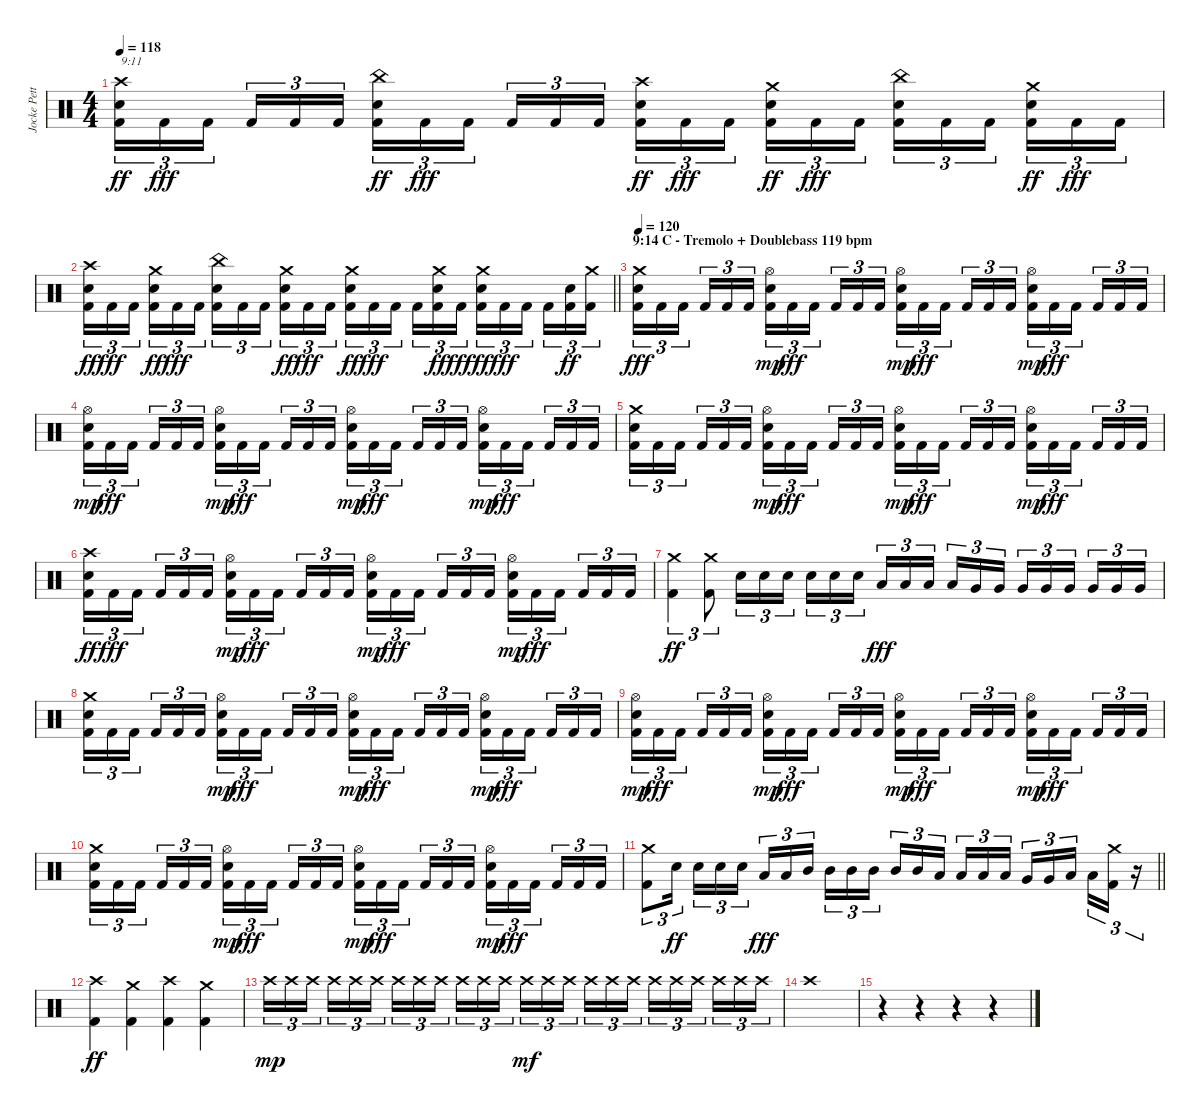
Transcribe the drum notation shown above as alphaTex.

\track ("Jocke Pettersson" "Jocke Pett") {instrument percussion}
\staff {score}
\articulation defaults
\ts (4 4)
\tempo 118
\clef neutral
\ks c
("Kick (hit) 2" "Electric Snare (hit)" "Crash high (hit)").16{tu (3 2) txt "9:11" dy ff} "Kick (hit) 2".16{tu (3 2) dy fff} "Kick (hit) 2".16{tu (3 2) beam splitsecondary} "Kick (hit) 2".16{tu (3 2)} "Kick (hit) 2".16{tu (3 2)} "Kick (hit) 2".16{tu (3 2)} ("Kick (hit) 2" "Electric Snare (hit)" "China (hit)").16{tu (3 2) dy ff} "Kick (hit) 2".16{tu (3 2) dy fff} "Kick (hit) 2".16{tu (3 2) beam splitsecondary} "Kick (hit) 2".16{tu (3 2)} "Kick (hit) 2".16{tu (3 2)} "Kick (hit) 2".16{tu (3 2)} ("Kick (hit) 2" "Electric Snare (hit)" "Crash high (hit)").16{tu (3 2) dy ff} "Kick (hit) 2".16{tu (3 2) dy fff} "Kick (hit) 2".16{tu (3 2) beam splitsecondary} ("Kick (hit) 2" "Electric Snare (hit)" "Crash medium (hit)").16{tu (3 2) dy ff} "Kick (hit) 2".16{tu (3 2) dy fff} "Kick (hit) 2".16{tu (3 2)} ("Kick (hit) 2" "Electric Snare (hit)" "China (hit)").16{tu (3 2)} "Kick (hit) 2".16{tu (3 2)} "Kick (hit) 2".16{tu (3 2) beam splitsecondary} ("Kick (hit) 2" "Electric Snare (hit)" "Crash medium (hit)").16{tu (3 2) dy ff} "Kick (hit) 2".16{tu (3 2) dy fff} "Kick (hit) 2".16{tu (3 2)} |
\barLineRight lightlight
("Kick (hit) 2" "Electric Snare (hit)" "Crash high (hit)").16{tu (3 2) dy ff} "Kick (hit) 2".16{tu (3 2) dy fff} "Kick (hit) 2".16{tu (3 2) beam splitsecondary} ("Kick (hit) 2" "Electric Snare (hit)" "Crash medium (hit)").16{tu (3 2) dy ff} "Kick (hit) 2".16{tu (3 2) dy fff} "Kick (hit) 2".16{tu (3 2)} ("Kick (hit) 2" "Electric Snare (hit)" "China (hit)").16{tu (3 2)} "Kick (hit) 2".16{tu (3 2)} "Kick (hit) 2".16{tu (3 2) beam splitsecondary} ("Kick (hit) 2" "Electric Snare (hit)" "Crash medium (hit)").16{tu (3 2) dy ff} "Kick (hit) 2".16{tu (3 2) dy fff} "Kick (hit) 2".16{tu (3 2)} ("Kick (hit) 2" "Electric Snare (hit)" "Crash medium (hit)").16{tu (3 2) dy ff} "Kick (hit) 2".16{tu (3 2) dy fff} "Kick (hit) 2".16{tu (3 2) beam splitsecondary} "Kick (hit) 2".16{tu (3 2)} ("Kick (hit) 2" "Electric Snare (hit)" "Crash medium (hit)").16{tu (3 2) dy ff} "Kick (hit) 2".16{tu (3 2) dy fff} ("Kick (hit) 2" "Electric Snare (hit)" "Crash medium (hit)").16{tu (3 2) dy ff} "Kick (hit) 2".16{tu (3 2) dy fff} "Kick (hit) 2".16{tu (3 2) beam splitsecondary} "Kick (hit) 2".16{tu (3 2)} ("Kick (hit) 2" "Electric Snare (hit)").16{tu (3 2) dy ff} ("Kick (hit) 2" "Crash medium (hit)").16{tu (3 2)} |
\section ("" "9:14 C - Tremolo + Doublebass 119 bpm")
\tempo 120
("Kick (hit) 2" "Electric Snare (hit)" "Crash medium (hit)").16{tu (3 2) dy fff} "Kick (hit) 2".16{tu (3 2)} "Kick (hit) 2".16{tu (3 2) beam splitsecondary} "Kick (hit) 2".16{tu (3 2)} "Kick (hit) 2".16{tu (3 2)} "Kick (hit) 2".16{tu (3 2)} ("Kick (hit) 2" "Electric Snare (hit)" "Hi-Hat (open)").16{tu (3 2) dy mp} "Kick (hit) 2".16{tu (3 2) dy fff} "Kick (hit) 2".16{tu (3 2) beam splitsecondary} "Kick (hit) 2".16{tu (3 2)} "Kick (hit) 2".16{tu (3 2)} "Kick (hit) 2".16{tu (3 2)} ("Kick (hit) 2" "Electric Snare (hit)" "Hi-Hat (open)").16{tu (3 2) dy mp} "Kick (hit) 2".16{tu (3 2) dy fff} "Kick (hit) 2".16{tu (3 2) beam splitsecondary} "Kick (hit) 2".16{tu (3 2)} "Kick (hit) 2".16{tu (3 2)} "Kick (hit) 2".16{tu (3 2)} ("Kick (hit) 2" "Electric Snare (hit)" "Hi-Hat (open)").16{tu (3 2) dy mp} "Kick (hit) 2".16{tu (3 2) dy fff} "Kick (hit) 2".16{tu (3 2) beam splitsecondary} "Kick (hit) 2".16{tu (3 2)} "Kick (hit) 2".16{tu (3 2)} "Kick (hit) 2".16{tu (3 2)} |
("Kick (hit) 2" "Electric Snare (hit)" "Hi-Hat (open)").16{tu (3 2) dy mp} "Kick (hit) 2".16{tu (3 2) dy fff} "Kick (hit) 2".16{tu (3 2) beam splitsecondary} "Kick (hit) 2".16{tu (3 2)} "Kick (hit) 2".16{tu (3 2)} "Kick (hit) 2".16{tu (3 2)} ("Kick (hit) 2" "Electric Snare (hit)" "Hi-Hat (open)").16{tu (3 2) dy mp} "Kick (hit) 2".16{tu (3 2) dy fff} "Kick (hit) 2".16{tu (3 2) beam splitsecondary} "Kick (hit) 2".16{tu (3 2)} "Kick (hit) 2".16{tu (3 2)} "Kick (hit) 2".16{tu (3 2)} ("Kick (hit) 2" "Electric Snare (hit)" "Hi-Hat (open)").16{tu (3 2) dy mp} "Kick (hit) 2".16{tu (3 2) dy fff} "Kick (hit) 2".16{tu (3 2) beam splitsecondary} "Kick (hit) 2".16{tu (3 2)} "Kick (hit) 2".16{tu (3 2)} "Kick (hit) 2".16{tu (3 2)} ("Kick (hit) 2" "Electric Snare (hit)" "Hi-Hat (open)").16{tu (3 2) dy mp} "Kick (hit) 2".16{tu (3 2) dy fff} "Kick (hit) 2".16{tu (3 2) beam splitsecondary} "Kick (hit) 2".16{tu (3 2)} "Kick (hit) 2".16{tu (3 2)} "Kick (hit) 2".16{tu (3 2)} |
("Kick (hit) 2" "Electric Snare (hit)" "Crash medium (hit)").16{tu (3 2)} "Kick (hit) 2".16{tu (3 2)} "Kick (hit) 2".16{tu (3 2) beam splitsecondary} "Kick (hit) 2".16{tu (3 2)} "Kick (hit) 2".16{tu (3 2)} "Kick (hit) 2".16{tu (3 2)} ("Kick (hit) 2" "Electric Snare (hit)" "Hi-Hat (open)").16{tu (3 2) dy mp} "Kick (hit) 2".16{tu (3 2) dy fff} "Kick (hit) 2".16{tu (3 2) beam splitsecondary} "Kick (hit) 2".16{tu (3 2)} "Kick (hit) 2".16{tu (3 2)} "Kick (hit) 2".16{tu (3 2)} ("Kick (hit) 2" "Electric Snare (hit)" "Hi-Hat (open)").16{tu (3 2) dy mp} "Kick (hit) 2".16{tu (3 2) dy fff} "Kick (hit) 2".16{tu (3 2) beam splitsecondary} "Kick (hit) 2".16{tu (3 2)} "Kick (hit) 2".16{tu (3 2)} "Kick (hit) 2".16{tu (3 2)} ("Kick (hit) 2" "Electric Snare (hit)" "Hi-Hat (open)").16{tu (3 2) dy mp} "Kick (hit) 2".16{tu (3 2) dy fff} "Kick (hit) 2".16{tu (3 2) beam splitsecondary} "Kick (hit) 2".16{tu (3 2)} "Kick (hit) 2".16{tu (3 2)} "Kick (hit) 2".16{tu (3 2)} |
("Kick (hit) 2" "Electric Snare (hit)" "Crash high (hit)").16{tu (3 2) dy ff} "Kick (hit) 2".16{tu (3 2) dy fff} "Kick (hit) 2".16{tu (3 2) beam splitsecondary} "Kick (hit) 2".16{tu (3 2)} "Kick (hit) 2".16{tu (3 2)} "Kick (hit) 2".16{tu (3 2)} ("Kick (hit) 2" "Electric Snare (hit)" "Hi-Hat (open)").16{tu (3 2) dy mp} "Kick (hit) 2".16{tu (3 2) dy fff} "Kick (hit) 2".16{tu (3 2) beam splitsecondary} "Kick (hit) 2".16{tu (3 2)} "Kick (hit) 2".16{tu (3 2)} "Kick (hit) 2".16{tu (3 2)} ("Kick (hit) 2" "Electric Snare (hit)" "Hi-Hat (open)").16{tu (3 2) dy mp} "Kick (hit) 2".16{tu (3 2) dy fff} "Kick (hit) 2".16{tu (3 2) beam splitsecondary} "Kick (hit) 2".16{tu (3 2)} "Kick (hit) 2".16{tu (3 2)} "Kick (hit) 2".16{tu (3 2)} ("Kick (hit) 2" "Electric Snare (hit)" "Hi-Hat (open)").16{tu (3 2) dy mp} "Kick (hit) 2".16{tu (3 2) dy fff} "Kick (hit) 2".16{tu (3 2) beam splitsecondary} "Kick (hit) 2".16{tu (3 2)} "Kick (hit) 2".16{tu (3 2)} "Kick (hit) 2".16{tu (3 2)} |
("Kick (hit) 2" "Crash medium (hit)").4{tu (3 2) dy ff} ("Kick (hit) 2" "Crash medium (hit)").8{tu (3 2)} "Electric Snare (hit)".16{tu (3 2)} "Electric Snare (hit)".16{tu (3 2)} "Electric Snare (hit)".16{tu (3 2) beam splitsecondary} "Electric Snare (hit)".16{tu (3 2)} "Electric Snare (hit)".16{tu (3 2)} "Electric Snare (hit)".16{tu (3 2)} "Low Tom (hit)".16{tu (3 2) dy fff} "Low Tom (hit)".16{tu (3 2)} "Low Tom (hit)".16{tu (3 2) beam splitsecondary} "Low Tom (hit)".16{tu (3 2)} "Very Low Tom (hit)".16{tu (3 2)} "Very Low Tom (hit)".16{tu (3 2)} "Very Low Tom (hit)".16{tu (3 2)} "Very Low Tom (hit)".16{tu (3 2)} "Very Low Tom (hit)".16{tu (3 2) beam splitsecondary} "Very Low Tom (hit)".16{tu (3 2)} "Very Low Tom (hit)".16{tu (3 2)} "Very Low Tom (hit)".16{tu (3 2)} |
("Kick (hit) 2" "Electric Snare (hit)" "Crash medium (hit)").16{tu (3 2)} "Kick (hit) 2".16{tu (3 2)} "Kick (hit) 2".16{tu (3 2) beam splitsecondary} "Kick (hit) 2".16{tu (3 2)} "Kick (hit) 2".16{tu (3 2)} "Kick (hit) 2".16{tu (3 2)} ("Kick (hit) 2" "Electric Snare (hit)" "Hi-Hat (open)").16{tu (3 2) dy mp} "Kick (hit) 2".16{tu (3 2) dy fff} "Kick (hit) 2".16{tu (3 2) beam splitsecondary} "Kick (hit) 2".16{tu (3 2)} "Kick (hit) 2".16{tu (3 2)} "Kick (hit) 2".16{tu (3 2)} ("Kick (hit) 2" "Electric Snare (hit)" "Hi-Hat (open)").16{tu (3 2) dy mp} "Kick (hit) 2".16{tu (3 2) dy fff} "Kick (hit) 2".16{tu (3 2) beam splitsecondary} "Kick (hit) 2".16{tu (3 2)} "Kick (hit) 2".16{tu (3 2)} "Kick (hit) 2".16{tu (3 2)} ("Kick (hit) 2" "Electric Snare (hit)" "Hi-Hat (open)").16{tu (3 2) dy mp} "Kick (hit) 2".16{tu (3 2) dy fff} "Kick (hit) 2".16{tu (3 2) beam splitsecondary} "Kick (hit) 2".16{tu (3 2)} "Kick (hit) 2".16{tu (3 2)} "Kick (hit) 2".16{tu (3 2)} |
("Kick (hit) 2" "Electric Snare (hit)" "Hi-Hat (open)").16{tu (3 2) dy mp} "Kick (hit) 2".16{tu (3 2) dy fff} "Kick (hit) 2".16{tu (3 2) beam splitsecondary} "Kick (hit) 2".16{tu (3 2)} "Kick (hit) 2".16{tu (3 2)} "Kick (hit) 2".16{tu (3 2)} ("Kick (hit) 2" "Electric Snare (hit)" "Hi-Hat (open)").16{tu (3 2) dy mp} "Kick (hit) 2".16{tu (3 2) dy fff} "Kick (hit) 2".16{tu (3 2) beam splitsecondary} "Kick (hit) 2".16{tu (3 2)} "Kick (hit) 2".16{tu (3 2)} "Kick (hit) 2".16{tu (3 2)} ("Kick (hit) 2" "Electric Snare (hit)" "Hi-Hat (open)").16{tu (3 2) dy mp} "Kick (hit) 2".16{tu (3 2) dy fff} "Kick (hit) 2".16{tu (3 2) beam splitsecondary} "Kick (hit) 2".16{tu (3 2)} "Kick (hit) 2".16{tu (3 2)} "Kick (hit) 2".16{tu (3 2)} ("Kick (hit) 2" "Electric Snare (hit)" "Hi-Hat (open)").16{tu (3 2) dy mp} "Kick (hit) 2".16{tu (3 2) dy fff} "Kick (hit) 2".16{tu (3 2) beam splitsecondary} "Kick (hit) 2".16{tu (3 2)} "Kick (hit) 2".16{tu (3 2)} "Kick (hit) 2".16{tu (3 2)} |
("Kick (hit) 2" "Electric Snare (hit)" "Crash medium (hit)").16{tu (3 2)} "Kick (hit) 2".16{tu (3 2)} "Kick (hit) 2".16{tu (3 2) beam splitsecondary} "Kick (hit) 2".16{tu (3 2)} "Kick (hit) 2".16{tu (3 2)} "Kick (hit) 2".16{tu (3 2)} ("Kick (hit) 2" "Electric Snare (hit)" "Hi-Hat (open)").16{tu (3 2) dy mp} "Kick (hit) 2".16{tu (3 2) dy fff} "Kick (hit) 2".16{tu (3 2) beam splitsecondary} "Kick (hit) 2".16{tu (3 2)} "Kick (hit) 2".16{tu (3 2)} "Kick (hit) 2".16{tu (3 2)} ("Kick (hit) 2" "Electric Snare (hit)" "Hi-Hat (open)").16{tu (3 2) dy mp} "Kick (hit) 2".16{tu (3 2) dy fff} "Kick (hit) 2".16{tu (3 2) beam splitsecondary} "Kick (hit) 2".16{tu (3 2)} "Kick (hit) 2".16{tu (3 2)} "Kick (hit) 2".16{tu (3 2)} ("Kick (hit) 2" "Electric Snare (hit)" "Hi-Hat (open)").16{tu (3 2) dy mp} "Kick (hit) 2".16{tu (3 2) dy fff} "Kick (hit) 2".16{tu (3 2) beam splitsecondary} "Kick (hit) 2".16{tu (3 2)} "Kick (hit) 2".16{tu (3 2)} "Kick (hit) 2".16{tu (3 2)} |
\barLineRight lightlight
("Kick (hit) 2" "Crash medium (hit)").8{tu (3 2)} "Electric Snare (hit)".16{tu (3 2) dy ff beam splitsecondary} "Electric Snare (hit)".16{tu (3 2)} "Electric Snare (hit)".16{tu (3 2)} "Electric Snare (hit)".16{tu (3 2)} "Low Tom (hit)".16{tu (3 2) dy fff} "Low Tom (hit)".16{tu (3 2)} "Mid Tom (hit)".16{tu (3 2) beam splitsecondary} "Mid Tom (hit)".16{tu (3 2)} "Mid Tom (hit)".16{tu (3 2)} "Mid Tom (hit)".16{tu (3 2)} "Mid Tom (hit)".16{tu (3 2)} "Mid Tom (hit)".16{tu (3 2)} "Low Tom (hit)".16{tu (3 2) beam splitsecondary} "Low Tom (hit)".16{tu (3 2)} "Low Tom (hit)".16{tu (3 2)} "Low Tom (hit)".16{tu (3 2)} "Very Low Tom (hit)".16{tu (3 2)} "Very Low Tom (hit)".16{tu (3 2)} "Low Tom (hit)".16{tu (3 2) beam splitsecondary} "Low Tom (hit)".16{tu (3 2)} ("Kick (hit) 2" "Crash medium (hit)").16{tu (3 2)} r.16{tu (3 2)} |
("Kick (hit) 2" "Crash high (hit)").4{dy ff} ("Kick (hit) 2" "Crash medium (hit)").4 ("Kick (hit) 2" "Crash high (hit)").4 ("Kick (hit) 2" "Crash medium (hit)").4 |
"Crash high (hit)".16{tu (3 2) dy mp} "Crash high (hit)".16{tu (3 2)} "Crash high (hit)".16{tu (3 2) beam splitsecondary} "Crash high (hit)".16{tu (3 2)} "Crash high (hit)".16{tu (3 2)} "Crash high (hit)".16{tu (3 2)} "Crash high (hit)".16{tu (3 2)} "Crash high (hit)".16{tu (3 2)} "Crash high (hit)".16{tu (3 2) beam splitsecondary} "Crash high (hit)".16{tu (3 2)} "Crash high (hit)".16{tu (3 2)} "Crash high (hit)".16{tu (3 2)} "Crash high (hit)".16{tu (3 2) dy mf} "Crash high (hit)".16{tu (3 2)} "Crash high (hit)".16{tu (3 2) beam splitsecondary} "Crash high (hit)".16{tu (3 2)} "Crash high (hit)".16{tu (3 2)} "Crash high (hit)".16{tu (3 2)} "Crash high (hit)".16{tu (3 2)} "Crash high (hit)".16{tu (3 2)} "Crash high (hit)".16{tu (3 2) beam splitsecondary} "Crash high (hit)".16{tu (3 2)} "Crash high (hit)".16{tu (3 2)} "Crash high (hit)".16{tu (3 2)} |
"Crash high (hit)".1 |
r.4 r.4 r.4 r.4
